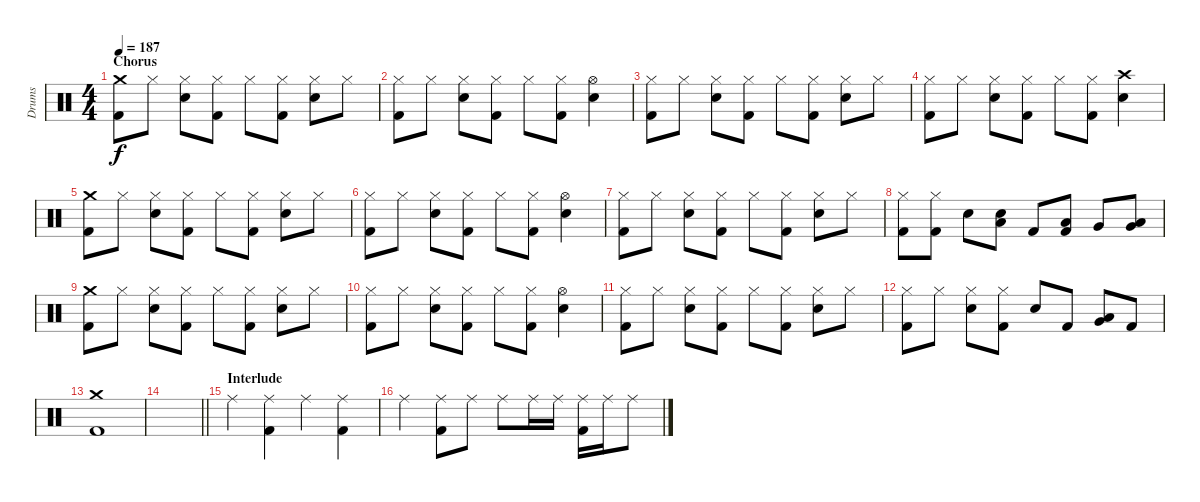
\track ("Drums" "Drums") {instrument percussion}
\staff {score}
\articulation defaults
\ts (4 4)
\section ("" "Chorus")
\tempo 187
\clef neutral
\ks c
("Crash medium (hit)" "Kick (hit) 2").8{dy f} "Hi-Hat (closed)".8 ("Hi-Hat (closed)" "Electric Snare (hit)").8 ("Hi-Hat (closed)" "Kick (hit) 2").8 "Hi-Hat (closed)".8 ("Hi-Hat (closed)" "Kick (hit) 2").8 ("Hi-Hat (closed)" "Electric Snare (hit)").8 "Hi-Hat (closed)".8 |
("Hi-Hat (closed)" "Kick (hit) 2").8 "Hi-Hat (closed)".8 ("Hi-Hat (closed)" "Electric Snare (hit)").8 ("Hi-Hat (closed)" "Kick (hit) 2").8 "Hi-Hat (closed)".8 ("Hi-Hat (closed)" "Kick (hit) 2").8 ("Hi-Hat (open)" "Electric Snare (hit)").4 |
("Hi-Hat (closed)" "Kick (hit) 2").8 "Hi-Hat (closed)".8 ("Hi-Hat (closed)" "Electric Snare (hit)").8 ("Hi-Hat (closed)" "Kick (hit) 2").8 "Hi-Hat (closed)".8 ("Hi-Hat (closed)" "Kick (hit) 2").8 ("Hi-Hat (closed)" "Electric Snare (hit)").8 "Hi-Hat (closed)".8 |
("Hi-Hat (closed)" "Kick (hit) 2").8 "Hi-Hat (closed)".8 ("Hi-Hat (closed)" "Electric Snare (hit)").8 ("Hi-Hat (closed)" "Kick (hit) 2").8 "Hi-Hat (closed)".8 ("Hi-Hat (closed)" "Kick (hit) 2").8 ("Crash high (hit)" "Electric Snare (hit)").4 |
("Crash medium (hit)" "Kick (hit) 2").8 "Hi-Hat (closed)".8 ("Hi-Hat (closed)" "Electric Snare (hit)").8 ("Hi-Hat (closed)" "Kick (hit) 2").8 "Hi-Hat (closed)".8 ("Hi-Hat (closed)" "Kick (hit) 2").8 ("Hi-Hat (closed)" "Electric Snare (hit)").8 "Hi-Hat (closed)".8 |
("Hi-Hat (closed)" "Kick (hit) 2").8 "Hi-Hat (closed)".8 ("Hi-Hat (closed)" "Electric Snare (hit)").8 ("Hi-Hat (closed)" "Kick (hit) 2").8 "Hi-Hat (closed)".8 ("Hi-Hat (closed)" "Kick (hit) 2").8 ("Hi-Hat (open)" "Electric Snare (hit)").4 |
("Hi-Hat (closed)" "Kick (hit) 2").8 "Hi-Hat (closed)".8 ("Hi-Hat (closed)" "Electric Snare (hit)").8 ("Hi-Hat (closed)" "Kick (hit) 2").8 "Hi-Hat (closed)".8 ("Hi-Hat (closed)" "Kick (hit) 2").8 ("Hi-Hat (closed)" "Electric Snare (hit)").8 "Hi-Hat (closed)".8 |
("Hi-Hat (closed)" "Kick (hit) 2").8 ("Hi-Hat (closed)" "Kick (hit) 2").8 "Electric Snare (hit)".8 ("Low Tom (hit)" "Electric Snare (hit)").8 "Kick (hit) 2".8 ("Low Tom (hit)" "Kick (hit) 2").8 "Very Low Tom (hit)".8 ("Very Low Tom (hit)" "Low Floor Tom (hit)").8 |
("Crash medium (hit)" "Kick (hit) 2").8 "Hi-Hat (closed)".8 ("Hi-Hat (closed)" "Electric Snare (hit)").8 ("Hi-Hat (closed)" "Kick (hit) 2").8 "Hi-Hat (closed)".8 ("Hi-Hat (closed)" "Kick (hit) 2").8 ("Hi-Hat (closed)" "Electric Snare (hit)").8 "Hi-Hat (closed)".8 |
("Hi-Hat (closed)" "Kick (hit) 2").8 "Hi-Hat (closed)".8 ("Hi-Hat (closed)" "Electric Snare (hit)").8 ("Hi-Hat (closed)" "Kick (hit) 2").8 "Hi-Hat (closed)".8 ("Hi-Hat (closed)" "Kick (hit) 2").8 ("Hi-Hat (open)" "Electric Snare (hit)").4 |
("Hi-Hat (closed)" "Kick (hit) 2").8 "Hi-Hat (closed)".8 ("Hi-Hat (closed)" "Electric Snare (hit)").8 ("Hi-Hat (closed)" "Kick (hit) 2").8 "Hi-Hat (closed)".8 ("Hi-Hat (closed)" "Kick (hit) 2").8 ("Hi-Hat (closed)" "Electric Snare (hit)").8 "Hi-Hat (closed)".8 |
("Hi-Hat (closed)" "Kick (hit) 2").8 "Hi-Hat (closed)".8 ("Hi-Hat (closed)" "Electric Snare (hit)").8 ("Hi-Hat (closed)" "Kick (hit) 2").8 "Electric Snare (hit)".8 "Kick (hit) 2".8 ("Very Low Tom (hit)" "Low Tom (hit)").8 "Kick (hit) 2".8 |
("Crash medium (hit)" "Kick (hit) 2").1 |
\barLineRight lightlight
|
\section ("" "Interlude")
"Ride (middle)".4 ("Ride (middle)" "Kick (hit) 2").4 "Ride (middle)".4 ("Ride (middle)" "Kick (hit) 2").4 |
"Ride (middle)".4 ("Ride (middle)" "Kick (hit) 2").8 "Ride (middle)".8 "Ride (middle)".8 "Ride (middle)".16 "Ride (middle)".16 ("Ride (middle)" "Kick (hit) 2").16 "Ride (middle)".16 "Ride (middle)".8
